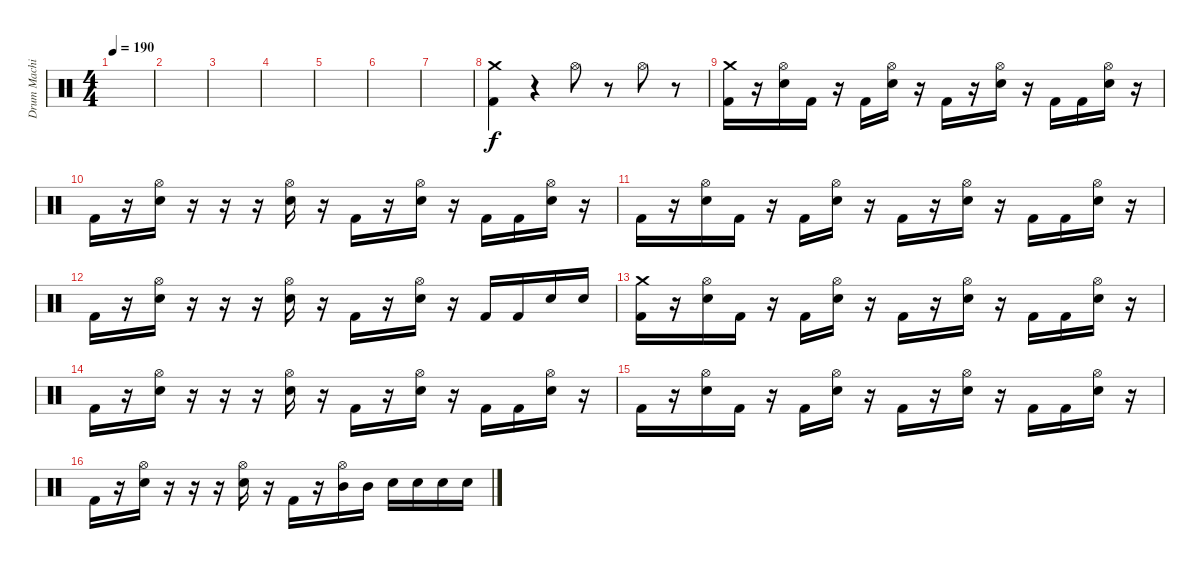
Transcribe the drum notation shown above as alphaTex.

\track ("Drum Machine Man" "Drum Machi") {instrument percussion}
\staff {score}
\articulation defaults
\ts (4 4)
\tempo 190
\clef neutral
\ks c
|
|
|
|
|
|
|
("Crash medium (hit)" "Kick (hit) 2").4 r.4 "Hi-Hat (open)".8 r.8 "Hi-Hat (open)".8 r.8 |
("Kick (hit) 2" "Crash medium (hit)").16 r.16 ("Hi-Hat (open)" "Electric Snare (hit)").16 "Kick (hit) 2".16 r.16 "Kick (hit) 2".16 ("Hi-Hat (open)" "Electric Snare (hit)").16 r.16 "Kick (hit) 2".16 r.16 ("Hi-Hat (open)" "Electric Snare (hit)").16 r.16 "Kick (hit) 2".16 "Kick (hit) 2".16 ("Hi-Hat (open)" "Electric Snare (hit)").16 r.16 |
"Kick (hit) 2".16 r.16 ("Hi-Hat (open)" "Electric Snare (hit)").16 r.16 r.16 r.16 ("Hi-Hat (open)" "Electric Snare (hit)").16 r.16 "Kick (hit) 2".16 r.16 ("Hi-Hat (open)" "Electric Snare (hit)").16 r.16 "Kick (hit) 2".16 "Kick (hit) 2".16 ("Hi-Hat (open)" "Electric Snare (hit)").16 r.16 |
"Kick (hit) 2".16 r.16 ("Hi-Hat (open)" "Electric Snare (hit)").16 "Kick (hit) 2".16 r.16 "Kick (hit) 2".16 ("Hi-Hat (open)" "Electric Snare (hit)").16 r.16 "Kick (hit) 2".16 r.16 ("Hi-Hat (open)" "Electric Snare (hit)").16 r.16 "Kick (hit) 2".16 "Kick (hit) 2".16 ("Hi-Hat (open)" "Electric Snare (hit)").16 r.16 |
"Kick (hit) 2".16 r.16 ("Hi-Hat (open)" "Electric Snare (hit)").16 r.16 r.16 r.16 ("Hi-Hat (open)" "Electric Snare (hit)").16 r.16 "Kick (hit) 2".16 r.16 ("Hi-Hat (open)" "Electric Snare (hit)").16 r.16 "Kick (hit) 2".16 "Kick (hit) 2".16 "Electric Snare (hit)".16 "Electric Snare (hit)".16 |
("Kick (hit) 2" "Crash medium (hit)").16 r.16 ("Hi-Hat (open)" "Electric Snare (hit)").16 "Kick (hit) 2".16 r.16 "Kick (hit) 2".16 ("Hi-Hat (open)" "Electric Snare (hit)").16 r.16 "Kick (hit) 2".16 r.16 ("Hi-Hat (open)" "Electric Snare (hit)").16 r.16 "Kick (hit) 2".16 "Kick (hit) 2".16 ("Hi-Hat (open)" "Electric Snare (hit)").16 r.16 |
"Kick (hit) 2".16 r.16 ("Hi-Hat (open)" "Electric Snare (hit)").16 r.16 r.16 r.16 ("Hi-Hat (open)" "Electric Snare (hit)").16 r.16 "Kick (hit) 2".16 r.16 ("Hi-Hat (open)" "Electric Snare (hit)").16 r.16 "Kick (hit) 2".16 "Kick (hit) 2".16 ("Hi-Hat (open)" "Electric Snare (hit)").16 r.16 |
"Kick (hit) 2".16 r.16 ("Hi-Hat (open)" "Electric Snare (hit)").16 "Kick (hit) 2".16 r.16 "Kick (hit) 2".16 ("Hi-Hat (open)" "Electric Snare (hit)").16 r.16 "Kick (hit) 2".16 r.16 ("Hi-Hat (open)" "Electric Snare (hit)").16 r.16 "Kick (hit) 2".16 "Kick (hit) 2".16 ("Hi-Hat (open)" "Electric Snare (hit)").16 r.16 |
"Kick (hit) 2".16 r.16 ("Hi-Hat (open)" "Electric Snare (hit)").16 r.16 r.16 r.16 ("Hi-Hat (open)" "Electric Snare (hit)").16 r.16 "Kick (hit) 2".16 r.16 ("Hi-Hat (open)" "Mid Tom (hit)").16 "Mid Tom (hit)".16 "Electric Snare (hit)".16 "Electric Snare (hit)".16 "Electric Snare (hit)".16 "Electric Snare (hit)".16
